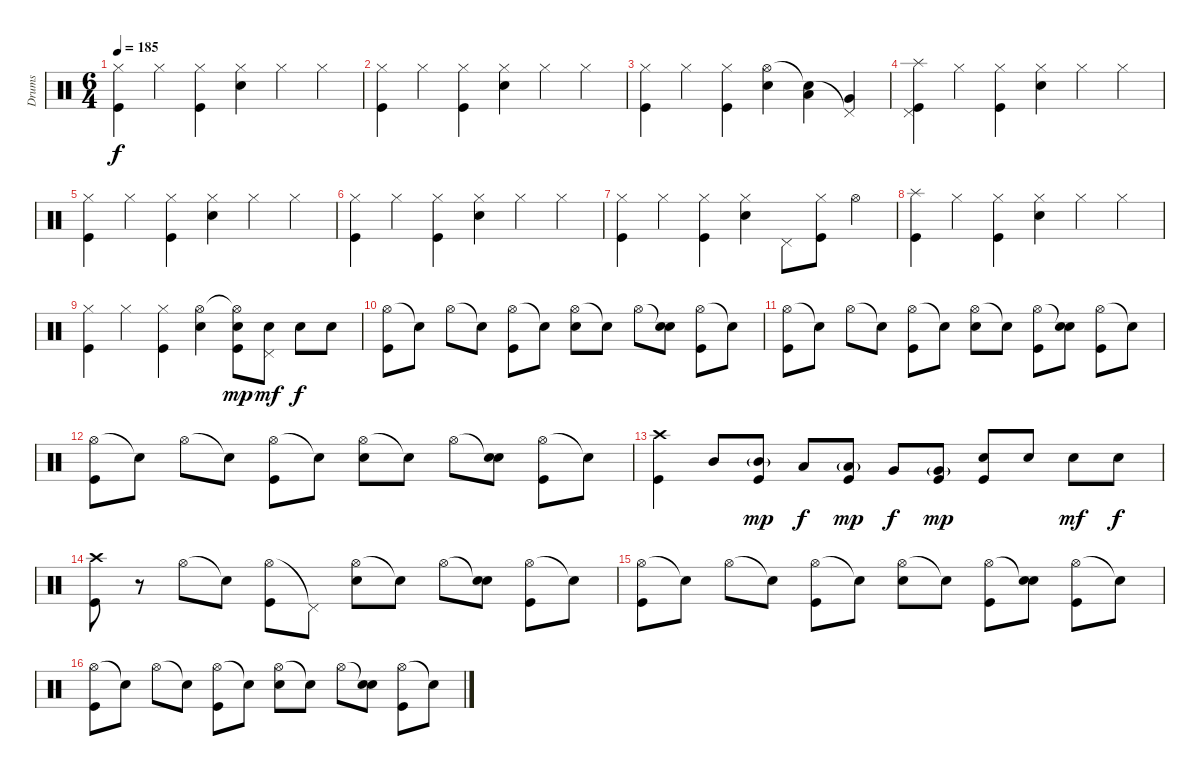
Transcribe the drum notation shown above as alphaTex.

\track ("Drums" "Drums") {instrument percussion}
\staff {score}
\articulation defaults
\ts (6 4)
\tempo 185
\clef neutral
\ks c
("Hi-Hat (closed)" "Kick (hit)").4{dy f} "Hi-Hat (closed)".4 ("Hi-Hat (closed)" "Kick (hit)").4 ("Hi-Hat (closed)" "Electric Snare (hit)").4 "Hi-Hat (closed)".4 "Hi-Hat (closed)".4 |
("Hi-Hat (closed)" "Kick (hit)").4 "Hi-Hat (closed)".4 ("Hi-Hat (closed)" "Kick (hit)").4 ("Hi-Hat (closed)" "Electric Snare (hit)").4 "Hi-Hat (closed)".4 "Hi-Hat (closed)".4 |
("Hi-Hat (closed)" "Kick (hit)").4 "Hi-Hat (closed)".4 ("Hi-Hat (closed)" "Kick (hit)").4 ("Hi-Hat (open)" "Electric Snare (hit)").4 ("Snare (hit)"{t} "Low Tom (hit)").4 ("Pedal Hi-Hat (hit)"{t} "Very Low Tom (hit)").4 |
("Splash (hit)" "Pedal Hi-Hat (hit)" "Kick (hit)").4 "Hi-Hat (closed)".4 ("Hi-Hat (closed)" "Kick (hit)").4 ("Hi-Hat (closed)" "Electric Snare (hit)").4 "Hi-Hat (closed)".4 "Hi-Hat (closed)".4 |
("Hi-Hat (closed)" "Kick (hit)").4 "Hi-Hat (closed)".4 ("Hi-Hat (closed)" "Kick (hit)").4 ("Hi-Hat (closed)" "Electric Snare (hit)").4 "Hi-Hat (closed)".4 "Hi-Hat (closed)".4 |
("Hi-Hat (closed)" "Kick (hit)").4 "Hi-Hat (closed)".4 ("Hi-Hat (closed)" "Kick (hit)").4 ("Hi-Hat (closed)" "Electric Snare (hit)").4 "Hi-Hat (closed)".4 "Hi-Hat (closed)".4 |
("Hi-Hat (closed)" "Kick (hit)").4 "Hi-Hat (closed)".4 ("Hi-Hat (closed)" "Kick (hit)").4 ("Hi-Hat (closed)" "Electric Snare (hit)").4 "Pedal Hi-Hat (hit)".8 ("Hi-Hat (closed)" "Kick (hit)").8 "Hi-Hat (open)".4 |
("Splash (hit)" "Kick (hit)").4 "Hi-Hat (closed)".4 ("Hi-Hat (closed)" "Kick (hit)").4 ("Hi-Hat (closed)" "Electric Snare (hit)").4 "Hi-Hat (closed)".4 "Hi-Hat (closed)".4 |
("Hi-Hat (closed)" "Kick (hit)").4 "Hi-Hat (closed)".4 ("Hi-Hat (closed)" "Kick (hit)").4 ("Hi-Hat (open)" "Electric Snare (hit)").4 ("Hi-Hat (open)"{t} "Electric Snare (hit)" "Kick (hit)").8{dy mp} ("Pedal Hi-Hat (hit)" "Electric Snare (hit)").8{dy mf} "Electric Snare (hit)".8{dy f} "Electric Snare (hit)".8 |
("Hi-Hat (open)" "Kick (hit)").8 "Snare (hit)"{t}.8 "Hi-Hat (open)".8 "Snare (hit)"{t}.8 ("Hi-Hat (open)" "Kick (hit)").8 "Snare (hit)"{t}.8 ("Hi-Hat (open)" "Electric Snare (hit)").8 "Snare (hit)"{t}.8 "Hi-Hat (open)".8 ("Snare (hit)"{t} "Electric Snare (hit)").8 ("Hi-Hat (open)" "Kick (hit)").8 "Snare (hit)"{t}.8 |
("Hi-Hat (open)" "Kick (hit)").8 "Snare (hit)"{t}.8 "Hi-Hat (open)".8 "Snare (hit)"{t}.8 ("Hi-Hat (open)" "Kick (hit)").8 "Snare (hit)"{t}.8 ("Hi-Hat (open)" "Electric Snare (hit)").8 "Snare (hit)"{t}.8 ("Hi-Hat (open)" "Kick (hit)").8 ("Snare (hit)"{t} "Electric Snare (hit)").8 ("Hi-Hat (open)" "Kick (hit)").8 "Snare (hit)"{t}.8 |
("Hi-Hat (open)" "Kick (hit)").8 "Snare (hit)"{t}.8 "Hi-Hat (open)".8 "Snare (hit)"{t}.8 ("Hi-Hat (open)" "Kick (hit)").8 "Snare (hit)"{t}.8 ("Hi-Hat (open)" "Electric Snare (hit)").8 "Snare (hit)"{t}.8 "Hi-Hat (open)".8 ("Snare (hit)"{t} "Electric Snare (hit)").8 ("Hi-Hat (open)" "Kick (hit)").8 "Snare (hit)"{t}.8 |
("Crash high (hit)" "Kick (hit)").4 "Mid Tom (hit)".8 ("Mid Tom (hit)"{g} "Kick (hit)").8{dy mp} "Low Tom (hit)".8{dy f} ("Low Tom (hit)"{g} "Kick (hit)").8{dy mp} "Very Low Tom (hit)".8{dy f} ("Very Low Tom (hit)"{g} "Kick (hit)").8{dy mp} ("Electric Snare (hit)" "Kick (hit)").8 "Electric Snare (hit)".8 "Electric Snare (hit)".8{dy mf} "Electric Snare (hit)".8{dy f} |
("Crash high (hit)" "Kick (hit)").8 r.8 "Hi-Hat (open)".8 "Snare (hit)"{t}.8 ("Hi-Hat (open)" "Kick (hit)").8 "Pedal Hi-Hat (hit)"{t}.8 ("Hi-Hat (open)" "Electric Snare (hit)").8 "Snare (hit)"{t}.8 "Hi-Hat (open)".8 ("Snare (hit)"{t} "Electric Snare (hit)").8 ("Hi-Hat (open)" "Kick (hit)").8 "Snare (hit)"{t}.8 |
("Hi-Hat (open)" "Kick (hit)").8 "Snare (hit)"{t}.8 "Hi-Hat (open)".8 "Snare (hit)"{t}.8 ("Hi-Hat (open)" "Kick (hit)").8 "Snare (hit)"{t}.8 ("Hi-Hat (open)" "Electric Snare (hit)").8 "Snare (hit)"{t}.8 ("Hi-Hat (open)" "Kick (hit)").8 ("Snare (hit)"{t} "Electric Snare (hit)").8 ("Hi-Hat (open)" "Kick (hit)").8 "Snare (hit)"{t}.8 |
("Hi-Hat (open)" "Kick (hit)").8 "Snare (hit)"{t}.8 "Hi-Hat (open)".8 "Snare (hit)"{t}.8 ("Hi-Hat (open)" "Kick (hit)").8 "Snare (hit)"{t}.8 ("Hi-Hat (open)" "Electric Snare (hit)").8 "Snare (hit)"{t}.8 "Hi-Hat (open)".8 ("Snare (hit)"{t} "Electric Snare (hit)").8 ("Hi-Hat (open)" "Kick (hit)").8 "Snare (hit)"{t}.8
